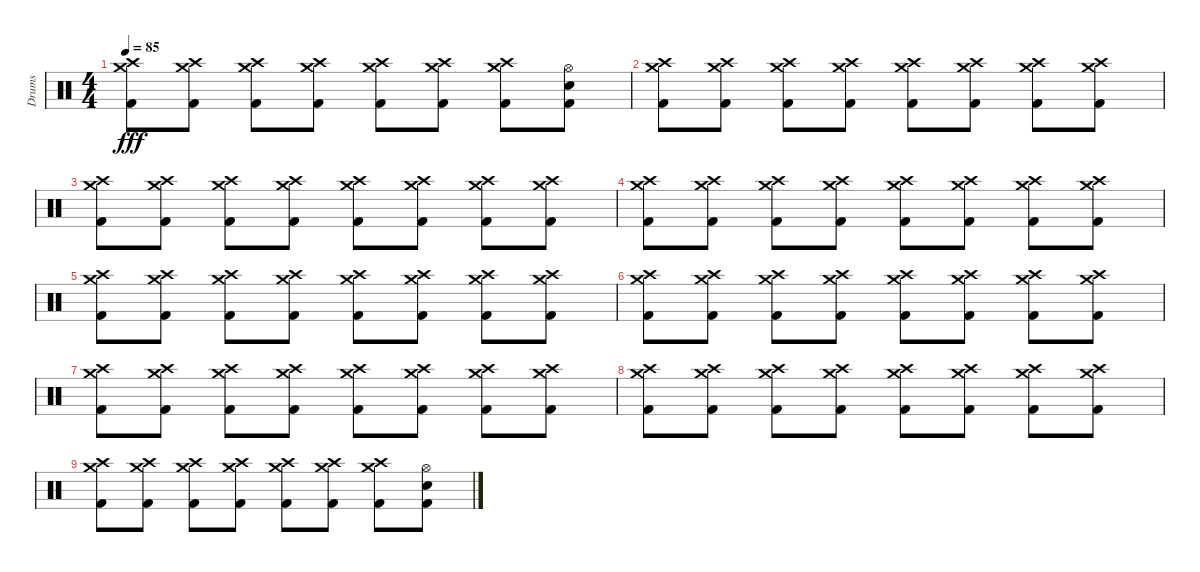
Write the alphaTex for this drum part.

\track ("Drums" "Drums") {instrument percussion}
\staff {score}
\articulation defaults
\ts (4 4)
\tempo 85
\clef neutral
\ks c
("Crash high (hit)" "Crash medium (hit)" "Kick (hit) 2").8{dy fff} ("Crash high (hit)" "Crash medium (hit)" "Kick (hit) 2").8 ("Crash high (hit)" "Crash medium (hit)" "Kick (hit) 2").8 ("Crash high (hit)" "Crash medium (hit)" "Kick (hit) 2").8 ("Crash high (hit)" "Crash medium (hit)" "Kick (hit) 2").8 ("Crash high (hit)" "Crash medium (hit)" "Kick (hit) 2").8 ("Crash high (hit)" "Crash medium (hit)" "Kick (hit) 2").8 ("Hi-Hat (open)" "Snare (hit) 2" "Kick (hit) 2").8 |
("Crash high (hit)" "Crash medium (hit)" "Kick (hit) 2").8 ("Crash high (hit)" "Crash medium (hit)" "Kick (hit) 2").8 ("Crash high (hit)" "Crash medium (hit)" "Kick (hit) 2").8 ("Crash high (hit)" "Crash medium (hit)" "Kick (hit) 2").8 ("Crash high (hit)" "Crash medium (hit)" "Kick (hit) 2").8 ("Crash high (hit)" "Crash medium (hit)" "Kick (hit) 2").8 ("Crash high (hit)" "Crash medium (hit)" "Kick (hit) 2").8 ("Crash high (hit)" "Crash medium (hit)" "Kick (hit) 2").8 |
("Crash high (hit)" "Crash medium (hit)" "Kick (hit) 2").8 ("Crash high (hit)" "Crash medium (hit)" "Kick (hit) 2").8 ("Crash high (hit)" "Crash medium (hit)" "Kick (hit) 2").8 ("Crash high (hit)" "Crash medium (hit)" "Kick (hit) 2").8 ("Crash high (hit)" "Crash medium (hit)" "Kick (hit) 2").8 ("Crash high (hit)" "Crash medium (hit)" "Kick (hit) 2").8 ("Crash high (hit)" "Crash medium (hit)" "Kick (hit) 2").8 ("Crash high (hit)" "Crash medium (hit)" "Kick (hit) 2").8 |
("Crash high (hit)" "Crash medium (hit)" "Kick (hit) 2").8 ("Crash high (hit)" "Crash medium (hit)" "Kick (hit) 2").8 ("Crash high (hit)" "Crash medium (hit)" "Kick (hit) 2").8 ("Crash high (hit)" "Crash medium (hit)" "Kick (hit) 2").8 ("Crash high (hit)" "Crash medium (hit)" "Kick (hit) 2").8 ("Crash high (hit)" "Crash medium (hit)" "Kick (hit) 2").8 ("Crash high (hit)" "Crash medium (hit)" "Kick (hit) 2").8 ("Crash high (hit)" "Crash medium (hit)" "Kick (hit) 2").8 |
("Crash high (hit)" "Crash medium (hit)" "Kick (hit) 2").8 ("Crash high (hit)" "Crash medium (hit)" "Kick (hit) 2").8 ("Crash high (hit)" "Crash medium (hit)" "Kick (hit) 2").8 ("Crash high (hit)" "Crash medium (hit)" "Kick (hit) 2").8 ("Crash high (hit)" "Crash medium (hit)" "Kick (hit) 2").8 ("Crash high (hit)" "Crash medium (hit)" "Kick (hit) 2").8 ("Crash high (hit)" "Crash medium (hit)" "Kick (hit) 2").8 ("Crash high (hit)" "Crash medium (hit)" "Kick (hit) 2").8 |
("Crash high (hit)" "Crash medium (hit)" "Kick (hit) 2").8 ("Crash high (hit)" "Crash medium (hit)" "Kick (hit) 2").8 ("Crash high (hit)" "Crash medium (hit)" "Kick (hit) 2").8 ("Crash high (hit)" "Crash medium (hit)" "Kick (hit) 2").8 ("Crash high (hit)" "Crash medium (hit)" "Kick (hit) 2").8 ("Crash high (hit)" "Crash medium (hit)" "Kick (hit) 2").8 ("Crash high (hit)" "Crash medium (hit)" "Kick (hit) 2").8 ("Crash high (hit)" "Crash medium (hit)" "Kick (hit) 2").8 |
("Crash high (hit)" "Crash medium (hit)" "Kick (hit) 2").8 ("Crash high (hit)" "Crash medium (hit)" "Kick (hit) 2").8 ("Crash high (hit)" "Crash medium (hit)" "Kick (hit) 2").8 ("Crash high (hit)" "Crash medium (hit)" "Kick (hit) 2").8 ("Crash high (hit)" "Crash medium (hit)" "Kick (hit) 2").8 ("Crash high (hit)" "Crash medium (hit)" "Kick (hit) 2").8 ("Crash high (hit)" "Crash medium (hit)" "Kick (hit) 2").8 ("Crash high (hit)" "Crash medium (hit)" "Kick (hit) 2").8 |
("Crash high (hit)" "Crash medium (hit)" "Kick (hit) 2").8 ("Crash high (hit)" "Crash medium (hit)" "Kick (hit) 2").8 ("Crash high (hit)" "Crash medium (hit)" "Kick (hit) 2").8 ("Crash high (hit)" "Crash medium (hit)" "Kick (hit) 2").8 ("Crash high (hit)" "Crash medium (hit)" "Kick (hit) 2").8 ("Crash high (hit)" "Crash medium (hit)" "Kick (hit) 2").8 ("Crash high (hit)" "Crash medium (hit)" "Kick (hit) 2").8 ("Crash high (hit)" "Crash medium (hit)" "Kick (hit) 2").8 |
("Crash high (hit)" "Crash medium (hit)" "Kick (hit) 2").8 ("Crash high (hit)" "Crash medium (hit)" "Kick (hit) 2").8 ("Crash high (hit)" "Crash medium (hit)" "Kick (hit) 2").8 ("Crash high (hit)" "Crash medium (hit)" "Kick (hit) 2").8 ("Crash high (hit)" "Crash medium (hit)" "Kick (hit) 2").8 ("Crash high (hit)" "Crash medium (hit)" "Kick (hit) 2").8 ("Crash high (hit)" "Crash medium (hit)" "Kick (hit) 2").8 ("Hi-Hat (open)" "Snare (hit) 2" "Kick (hit) 2").8
